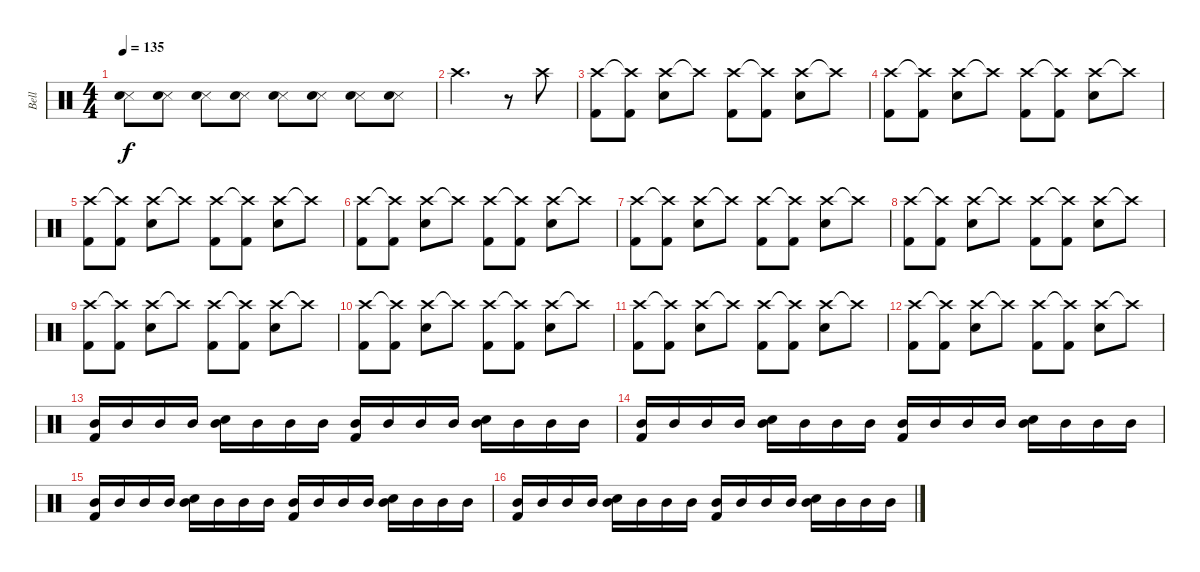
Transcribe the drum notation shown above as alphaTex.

\track ("Bell" "Bell") {instrument percussion}
\staff {score}
\articulation defaults
\ts (4 4)
\tempo 135
\clef neutral
\ks c
("Snare (side stick) 3" "Snare (hit) 2").8{dy f} ("Snare (side stick) 3" "Snare (hit) 2").8 ("Snare (side stick) 3" "Snare (hit) 2").8 ("Snare (side stick) 3" "Snare (hit) 2").8 ("Snare (side stick) 3" "Snare (hit) 2").8 ("Snare (side stick) 3" "Snare (hit) 2").8 ("Snare (side stick) 3" "Snare (hit) 2").8 ("Snare (side stick) 3" "Snare (hit) 2").8 |
"Crash high (hit)".2{d} r.8 "Crash high (hit)".8 |
("Crash high (hit)" "Kick (hit) 2").8 ("Crash high (hit)"{t} "Kick (hit) 2").8 ("Crash high (hit)" "Snare (hit) 2").8 "Crash high (hit)"{t}.8 ("Crash high (hit)" "Kick (hit) 2").8 ("Crash high (hit)"{t} "Kick (hit) 2").8 ("Crash high (hit)" "Snare (hit) 2").8 "Crash high (hit)"{t}.8 |
("Crash high (hit)" "Kick (hit) 2").8 ("Crash high (hit)"{t} "Kick (hit) 2").8 ("Crash high (hit)" "Snare (hit) 2").8 "Crash high (hit)"{t}.8 ("Crash high (hit)" "Kick (hit) 2").8 ("Crash high (hit)"{t} "Kick (hit) 2").8 ("Crash high (hit)" "Snare (hit) 2").8 "Crash high (hit)"{t}.8 |
("Crash high (hit)" "Kick (hit) 2").8 ("Crash high (hit)"{t} "Kick (hit) 2").8 ("Crash high (hit)" "Snare (hit) 2").8 "Crash high (hit)"{t}.8 ("Crash high (hit)" "Kick (hit) 2").8 ("Crash high (hit)"{t} "Kick (hit) 2").8 ("Crash high (hit)" "Snare (hit) 2").8 "Crash high (hit)"{t}.8 |
("Crash high (hit)" "Kick (hit) 2").8 ("Crash high (hit)"{t} "Kick (hit) 2").8 ("Crash high (hit)" "Snare (hit) 2").8 "Crash high (hit)"{t}.8 ("Crash high (hit)" "Kick (hit) 2").8 ("Crash high (hit)"{t} "Kick (hit) 2").8 ("Crash high (hit)" "Snare (hit) 2").8 "Crash high (hit)"{t}.8 |
("Crash high (hit)" "Kick (hit) 2").8 ("Crash high (hit)"{t} "Kick (hit) 2").8 ("Crash high (hit)" "Snare (hit) 2").8 "Crash high (hit)"{t}.8 ("Crash high (hit)" "Kick (hit) 2").8 ("Crash high (hit)"{t} "Kick (hit) 2").8 ("Crash high (hit)" "Snare (hit) 2").8 "Crash high (hit)"{t}.8 |
("Crash high (hit)" "Kick (hit) 2").8 ("Crash high (hit)"{t} "Kick (hit) 2").8 ("Crash high (hit)" "Snare (hit) 2").8 "Crash high (hit)"{t}.8 ("Crash high (hit)" "Kick (hit) 2").8 ("Crash high (hit)"{t} "Kick (hit) 2").8 ("Crash high (hit)" "Snare (hit) 2").8 "Crash high (hit)"{t}.8 |
("Crash high (hit)" "Kick (hit) 2").8 ("Crash high (hit)"{t} "Kick (hit) 2").8 ("Crash high (hit)" "Snare (hit) 2").8 "Crash high (hit)"{t}.8 ("Crash high (hit)" "Kick (hit) 2").8 ("Crash high (hit)"{t} "Kick (hit) 2").8 ("Crash high (hit)" "Snare (hit) 2").8 "Crash high (hit)"{t}.8 |
("Crash high (hit)" "Kick (hit) 2").8 ("Crash high (hit)"{t} "Kick (hit) 2").8 ("Crash high (hit)" "Snare (hit) 2").8 "Crash high (hit)"{t}.8 ("Crash high (hit)" "Kick (hit) 2").8 ("Crash high (hit)"{t} "Kick (hit) 2").8 ("Crash high (hit)" "Snare (hit) 2").8 "Crash high (hit)"{t}.8 |
("Crash high (hit)" "Kick (hit) 2").8 ("Crash high (hit)"{t} "Kick (hit) 2").8 ("Crash high (hit)" "Snare (hit) 2").8 "Crash high (hit)"{t}.8 ("Crash high (hit)" "Kick (hit) 2").8 ("Crash high (hit)"{t} "Kick (hit) 2").8 ("Crash high (hit)" "Snare (hit) 2").8 "Crash high (hit)"{t}.8 |
("Crash high (hit)" "Kick (hit) 2").8 ("Crash high (hit)"{t} "Kick (hit) 2").8 ("Crash high (hit)" "Snare (hit) 2").8 "Crash high (hit)"{t}.8 ("Crash high (hit)" "Kick (hit) 2").8 ("Crash high (hit)"{t} "Kick (hit) 2").8 ("Crash high (hit)" "Snare (hit) 2").8 "Crash high (hit)"{t}.8 |
("Mid Tom (hit)" "Kick (hit) 2").16 "Mid Tom (hit)".16 "Mid Tom (hit)".16 "Mid Tom (hit)".16 ("Mid Tom (hit)" "Snare (hit) 2").16 "Mid Tom (hit)".16 "Mid Tom (hit)".16 "Mid Tom (hit)".16 ("Mid Tom (hit)" "Kick (hit) 2").16 "Mid Tom (hit)".16 "Mid Tom (hit)".16 "Mid Tom (hit)".16 ("Mid Tom (hit)" "Snare (hit) 2").16 "Mid Tom (hit)".16 "Mid Tom (hit)".16 "Mid Tom (hit)".16 |
("Mid Tom (hit)" "Kick (hit) 2").16 "Mid Tom (hit)".16 "Mid Tom (hit)".16 "Mid Tom (hit)".16 ("Mid Tom (hit)" "Snare (hit) 2").16 "Mid Tom (hit)".16 "Mid Tom (hit)".16 "Mid Tom (hit)".16 ("Mid Tom (hit)" "Kick (hit) 2").16 "Mid Tom (hit)".16 "Mid Tom (hit)".16 "Mid Tom (hit)".16 ("Mid Tom (hit)" "Snare (hit) 2").16 "Mid Tom (hit)".16 "Mid Tom (hit)".16 "Mid Tom (hit)".16 |
("Mid Tom (hit)" "Kick (hit) 2").16 "Mid Tom (hit)".16 "Mid Tom (hit)".16 "Mid Tom (hit)".16 ("Mid Tom (hit)" "Snare (hit) 2").16 "Mid Tom (hit)".16 "Mid Tom (hit)".16 "Mid Tom (hit)".16 ("Mid Tom (hit)" "Kick (hit) 2").16 "Mid Tom (hit)".16 "Mid Tom (hit)".16 "Mid Tom (hit)".16 ("Mid Tom (hit)" "Snare (hit) 2").16 "Mid Tom (hit)".16 "Mid Tom (hit)".16 "Mid Tom (hit)".16 |
("Mid Tom (hit)" "Kick (hit) 2").16 "Mid Tom (hit)".16 "Mid Tom (hit)".16 "Mid Tom (hit)".16 ("Mid Tom (hit)" "Snare (hit) 2").16 "Mid Tom (hit)".16 "Mid Tom (hit)".16 "Mid Tom (hit)".16 ("Mid Tom (hit)" "Kick (hit) 2").16 "Mid Tom (hit)".16 "Mid Tom (hit)".16 "Mid Tom (hit)".16 ("Mid Tom (hit)" "Snare (hit) 2").16 "Mid Tom (hit)".16 "Mid Tom (hit)".16 "Mid Tom (hit)".16
